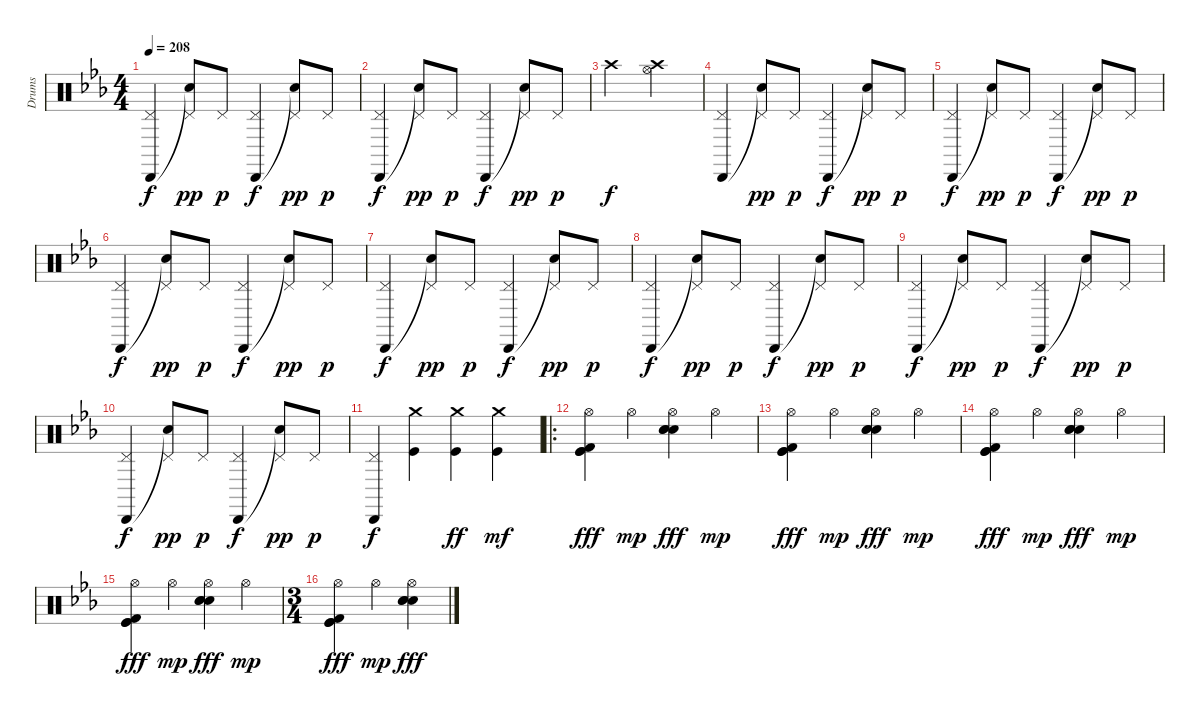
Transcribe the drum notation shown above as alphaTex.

\track ("Drums" "Drums") {instrument percussion}
\staff {score}
\articulation defaults
\ts (4 4)
\tempo 208
\clef neutral
\ks cminor
("Cabasa (hit)" "Pedal Hi-Hat (hit)").4{dy f} ("Snare (hit)"{t} "Pedal Hi-Hat (hit)").8{dy pp} "Pedal Hi-Hat (hit)".8{dy p} ("Cabasa (hit)" "Pedal Hi-Hat (hit)").4{dy f} ("Snare (hit)"{t} "Pedal Hi-Hat (hit)").8{dy pp} "Pedal Hi-Hat (hit)".8{dy p} |
("Cabasa (hit)" "Pedal Hi-Hat (hit)").4{dy f} ("Snare (hit)"{t} "Pedal Hi-Hat (hit)").8{dy pp} "Pedal Hi-Hat (hit)".8{dy p} ("Cabasa (hit)" "Pedal Hi-Hat (hit)").4{dy f} ("Snare (hit)"{t} "Pedal Hi-Hat (hit)").8{dy pp} "Pedal Hi-Hat (hit)".8{dy p} |
"Crash high (hit)".2{dy f} ("Crash high (hit)" "Hi-Hat (open)").2 |
("Cabasa (hit)" "Pedal Hi-Hat (hit)").4 ("Snare (hit)"{t} "Pedal Hi-Hat (hit)").8{dy pp} "Pedal Hi-Hat (hit)".8{dy p} ("Cabasa (hit)" "Pedal Hi-Hat (hit)").4{dy f} ("Snare (hit)"{t} "Pedal Hi-Hat (hit)").8{dy pp} "Pedal Hi-Hat (hit)".8{dy p} |
("Cabasa (hit)" "Pedal Hi-Hat (hit)").4{dy f} ("Snare (hit)"{t} "Pedal Hi-Hat (hit)").8{dy pp} "Pedal Hi-Hat (hit)".8{dy p} ("Cabasa (hit)" "Pedal Hi-Hat (hit)").4{dy f} ("Snare (hit)"{t} "Pedal Hi-Hat (hit)").8{dy pp} "Pedal Hi-Hat (hit)".8{dy p} |
("Cabasa (hit)" "Pedal Hi-Hat (hit)").4{dy f} ("Snare (hit)"{t} "Pedal Hi-Hat (hit)").8{dy pp} "Pedal Hi-Hat (hit)".8{dy p} ("Cabasa (hit)" "Pedal Hi-Hat (hit)").4{dy f} ("Snare (hit)"{t} "Pedal Hi-Hat (hit)").8{dy pp} "Pedal Hi-Hat (hit)".8{dy p} |
("Cabasa (hit)" "Pedal Hi-Hat (hit)").4{dy f} ("Snare (hit)"{t} "Pedal Hi-Hat (hit)").8{dy pp} "Pedal Hi-Hat (hit)".8{dy p} ("Cabasa (hit)" "Pedal Hi-Hat (hit)").4{dy f} ("Snare (hit)"{t} "Pedal Hi-Hat (hit)").8{dy pp} "Pedal Hi-Hat (hit)".8{dy p} |
("Cabasa (hit)" "Pedal Hi-Hat (hit)").4{dy f} ("Snare (hit)"{t} "Pedal Hi-Hat (hit)").8{dy pp} "Pedal Hi-Hat (hit)".8{dy p} ("Cabasa (hit)" "Pedal Hi-Hat (hit)").4{dy f} ("Snare (hit)"{t} "Pedal Hi-Hat (hit)").8{dy pp} "Pedal Hi-Hat (hit)".8{dy p} |
("Cabasa (hit)" "Pedal Hi-Hat (hit)").4{dy f} ("Snare (hit)"{t} "Pedal Hi-Hat (hit)").8{dy pp} "Pedal Hi-Hat (hit)".8{dy p} ("Cabasa (hit)" "Pedal Hi-Hat (hit)").4{dy f} ("Snare (hit)"{t} "Pedal Hi-Hat (hit)").8{dy pp} "Pedal Hi-Hat (hit)".8{dy p} |
("Cabasa (hit)" "Pedal Hi-Hat (hit)").4{dy f} ("Snare (hit)"{t} "Pedal Hi-Hat (hit)").8{dy pp} "Pedal Hi-Hat (hit)".8{dy p} ("Cabasa (hit)" "Pedal Hi-Hat (hit)").4{dy f} ("Snare (hit)"{t} "Pedal Hi-Hat (hit)").8{dy pp} "Pedal Hi-Hat (hit)".8{dy p} |
("Cabasa (hit)" "Pedal Hi-Hat (hit)").4{dy f} ("Kick (hit)" "Crash medium (hit)").4 ("Kick (hit)" "Crash medium (hit)").4{dy ff} ("Kick (hit)" "Crash medium (hit)").4{dy mf} |
\ro
("Kick (hit) 2" "Kick (hit)" "Kick (hit)" "Hi-Hat (open)").4{dy fff} "Hi-Hat (open)".4{dy mp} ("Snare (hit) 2" "Electric Snare (hit)" "Electric Snare (hit)" "Hi-Hat (open)").4{dy fff} "Hi-Hat (open)".4{dy mp} |
("Kick (hit) 2" "Kick (hit)" "Kick (hit)" "Hi-Hat (open)").4{dy fff} "Hi-Hat (open)".4{dy mp} ("Snare (hit) 2" "Electric Snare (hit)" "Electric Snare (hit)" "Hi-Hat (open)").4{dy fff} "Hi-Hat (open)".4{dy mp} |
("Kick (hit) 2" "Kick (hit)" "Kick (hit)" "Hi-Hat (open)").4{dy fff} "Hi-Hat (open)".4{dy mp} ("Snare (hit) 2" "Electric Snare (hit)" "Electric Snare (hit)" "Hi-Hat (open)").4{dy fff} "Hi-Hat (open)".4{dy mp} |
("Kick (hit) 2" "Kick (hit)" "Kick (hit)" "Hi-Hat (open)").4{dy fff} "Hi-Hat (open)".4{dy mp} ("Snare (hit) 2" "Electric Snare (hit)" "Electric Snare (hit)" "Hi-Hat (open)").4{dy fff} "Hi-Hat (open)".4{dy mp} |
\ts (3 4)
("Kick (hit) 2" "Kick (hit)" "Kick (hit)" "Hi-Hat (open)").4{dy fff} "Hi-Hat (open)".4{dy mp} ("Snare (hit) 2" "Electric Snare (hit)" "Electric Snare (hit)" "Hi-Hat (open)").4{dy fff}
